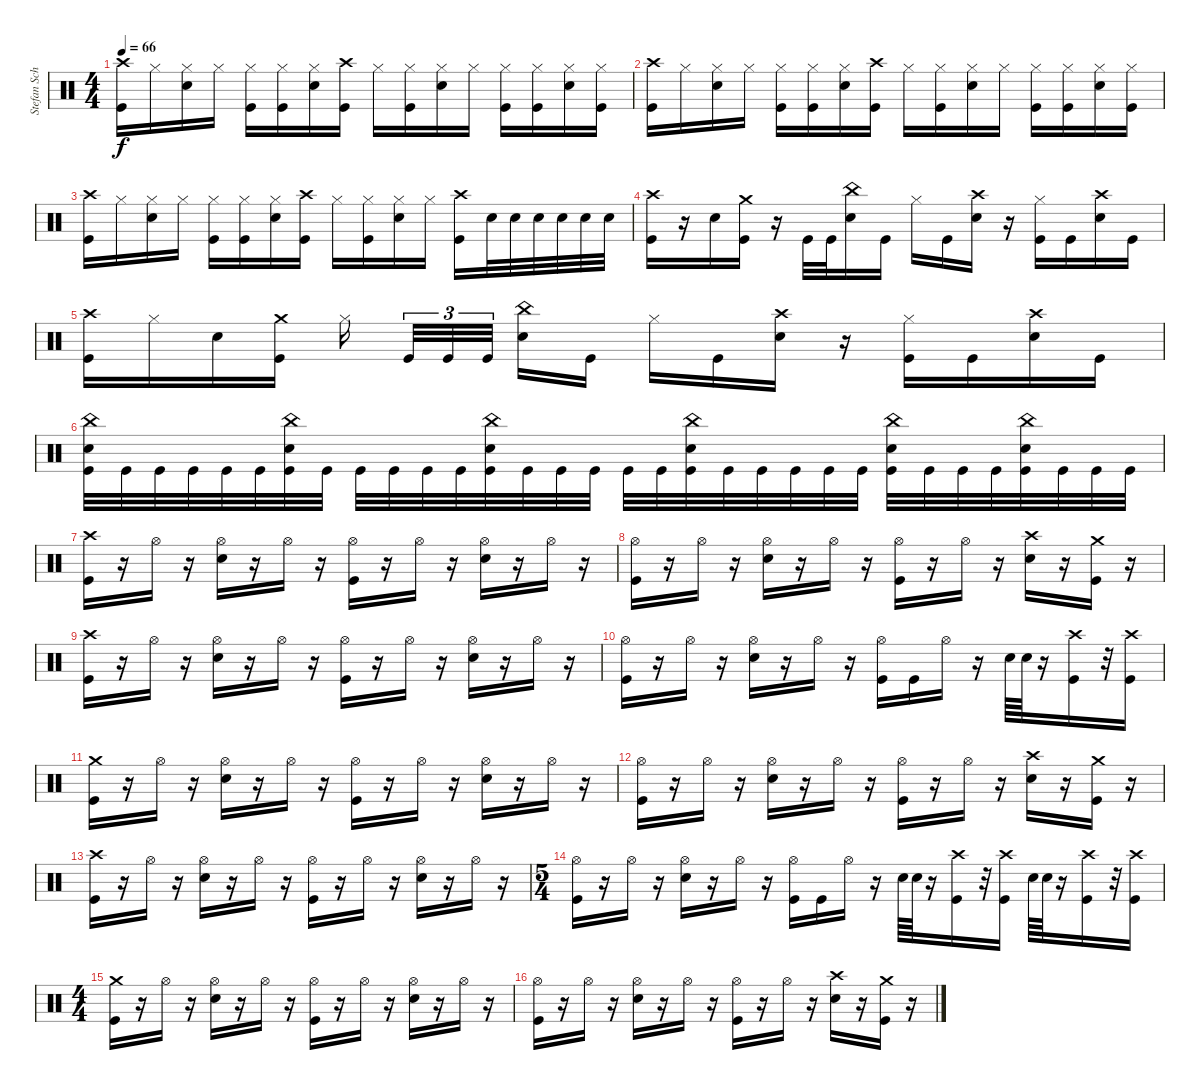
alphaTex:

\track ("Stefan Schwarzmann" "Stefan Sch") {instrument percussion}
\staff {score}
\articulation defaults
\ts (4 4)
\tempo 66
\clef neutral
\ks c
("Kick (hit)" "Crash high (hit)").16{dy f} "Hi-Hat (closed)".16 ("Snare (hit) 2" "Hi-Hat (closed)").16 "Hi-Hat (closed)".16 ("Kick (hit)" "Hi-Hat (closed)").16 ("Kick (hit)" "Hi-Hat (closed)").16 ("Snare (hit) 2" "Hi-Hat (closed)").16 ("Kick (hit)" "Crash high (hit)").16 "Hi-Hat (closed)".16 ("Kick (hit)" "Hi-Hat (closed)").16 ("Snare (hit) 2" "Hi-Hat (closed)").16 "Hi-Hat (closed)".16 ("Kick (hit)" "Hi-Hat (closed)").16 ("Kick (hit)" "Hi-Hat (closed)").16 ("Snare (hit) 2" "Hi-Hat (closed)").16 ("Kick (hit)" "Hi-Hat (closed)").16 |
("Kick (hit)" "Crash high (hit)").16 "Hi-Hat (closed)".16 ("Snare (hit) 2" "Hi-Hat (closed)").16 "Hi-Hat (closed)".16 ("Kick (hit)" "Hi-Hat (closed)").16 ("Kick (hit)" "Hi-Hat (closed)").16 ("Snare (hit) 2" "Hi-Hat (closed)").16 ("Kick (hit)" "Crash high (hit)").16 "Hi-Hat (closed)".16 ("Kick (hit)" "Hi-Hat (closed)").16 ("Snare (hit) 2" "Hi-Hat (closed)").16 "Hi-Hat (closed)".16 ("Kick (hit)" "Hi-Hat (closed)").16 ("Kick (hit)" "Hi-Hat (closed)").16 ("Snare (hit) 2" "Hi-Hat (closed)").16 ("Kick (hit)" "Hi-Hat (closed)").16 |
("Kick (hit)" "Crash high (hit)").16 "Hi-Hat (closed)".16 ("Snare (hit) 2" "Hi-Hat (closed)").16 "Hi-Hat (closed)".16 ("Kick (hit)" "Hi-Hat (closed)").16 ("Kick (hit)" "Hi-Hat (closed)").16 ("Snare (hit) 2" "Hi-Hat (closed)").16 ("Kick (hit)" "Crash high (hit)").16 "Hi-Hat (closed)".16 ("Kick (hit)" "Hi-Hat (closed)").16 ("Snare (hit) 2" "Hi-Hat (closed)").16 "Hi-Hat (closed)".16 ("Kick (hit)" "Crash high (hit)").16 "Snare (hit) 2".32 "Snare (hit) 2".32 "Snare (hit) 2".32 "Snare (hit) 2".32 "Snare (hit) 2".32 "Snare (hit) 2".32 |
("Kick (hit)" "Crash high (hit)").16 r.16 "Snare (hit) 2".16 ("Kick (hit)" "Crash medium (hit)").16 r.16 "Kick (hit)".32 "Kick (hit)".32 ("Snare (hit) 2" "China (hit)").16 "Kick (hit)".16 "Hi-Hat (closed)".16 "Kick (hit)".16 ("Crash high (hit)" "Snare (hit) 2").16 r.16 ("Kick (hit)" "Hi-Hat (closed)").16 "Kick (hit)".16 ("Snare (hit) 2" "Crash high (hit)").16 "Kick (hit)".16 |
("Kick (hit)" "Crash high (hit)").16 "Hi-Hat (closed)".16 "Snare (hit) 2".16 ("Kick (hit)" "Crash medium (hit)").16 "Hi-Hat (closed)".16 "Kick (hit)".32{tu (3 2)} "Kick (hit)".32{tu (3 2)} "Kick (hit)".32{tu (3 2)} ("Snare (hit) 2" "China (hit)").16 "Kick (hit)".16 "Hi-Hat (closed)".16 "Kick (hit)".16 ("Crash high (hit)" "Snare (hit) 2").16 r.16 ("Kick (hit)" "Hi-Hat (closed)").16 "Kick (hit)".16 ("Snare (hit) 2" "Crash high (hit)").16 "Kick (hit)".16 |
("Snare (hit) 2" "Kick (hit)" "China (hit)").32 "Kick (hit)".32 "Kick (hit)".32 "Kick (hit)".32 "Kick (hit)".32 "Kick (hit)".32 ("Kick (hit)" "Snare (hit) 2" "China (hit)").32 "Kick (hit)".32 "Kick (hit)".32 "Kick (hit)".32 "Kick (hit)".32 "Kick (hit)".32 ("Kick (hit)" "Snare (hit) 2" "China (hit)").32 "Kick (hit)".32 "Kick (hit)".32 "Kick (hit)".32 "Kick (hit)".32 "Kick (hit)".32 ("Snare (hit) 2" "China (hit)" "Kick (hit)").32 "Kick (hit)".32 "Kick (hit)".32 "Kick (hit)".32 "Kick (hit)".32 "Kick (hit)".32 ("Kick (hit)" "Snare (hit) 2" "China (hit)").32 "Kick (hit)".32 "Kick (hit)".32 "Kick (hit)".32 ("Kick (hit)" "Snare (hit) 2" "China (hit)").32 "Kick (hit)".32 "Kick (hit)".32 "Kick (hit)".32 |
("Kick (hit)" "Crash high (hit)").16 r.16 "Hi-Hat (open)".16 r.16 ("Snare (hit) 2" "Hi-Hat (open)").16 r.16 "Hi-Hat (open)".16 r.16 ("Kick (hit)" "Hi-Hat (open)").16 r.16 "Hi-Hat (open)".16 r.16 ("Snare (hit) 2" "Hi-Hat (open)").16 r.16 "Hi-Hat (open)".16 r.16 |
("Kick (hit)" "Hi-Hat (open)").16 r.16 "Hi-Hat (open)".16 r.16 ("Snare (hit) 2" "Hi-Hat (open)").16 r.16 "Hi-Hat (open)".16 r.16 ("Kick (hit)" "Hi-Hat (open)").16 r.16 "Hi-Hat (open)".16 r.16 ("Snare (hit) 2" "Crash high (hit)").16 r.16 ("Kick (hit)" "Crash medium (hit)").16 r.16 |
("Kick (hit)" "Crash high (hit)").16 r.16 "Hi-Hat (open)".16 r.16 ("Snare (hit) 2" "Hi-Hat (open)").16 r.16 "Hi-Hat (open)".16 r.16 ("Kick (hit)" "Hi-Hat (open)").16 r.16 "Hi-Hat (open)".16 r.16 ("Snare (hit) 2" "Hi-Hat (open)").16 r.16 "Hi-Hat (open)".16 r.16 |
("Kick (hit)" "Hi-Hat (open)").16 r.16 "Hi-Hat (open)".16 r.16 ("Snare (hit) 2" "Hi-Hat (open)").16 r.16 "Hi-Hat (open)".16 r.16 ("Kick (hit)" "Hi-Hat (open)").16 "Kick (hit)".16 "Hi-Hat (open)".16 r.16 "Snare (hit) 2".64 "Snare (hit) 2".64 r.16 ("Kick (hit)" "Crash high (hit)").16 r.32 ("Kick (hit)" "Crash high (hit)").16 |
("Kick (hit)" "Crash medium (hit)").16 r.16 "Hi-Hat (open)".16 r.16 ("Snare (hit) 2" "Hi-Hat (open)").16 r.16 "Hi-Hat (open)".16 r.16 ("Kick (hit)" "Hi-Hat (open)").16 r.16 "Hi-Hat (open)".16 r.16 ("Snare (hit) 2" "Hi-Hat (open)").16 r.16 "Hi-Hat (open)".16 r.16 |
("Kick (hit)" "Hi-Hat (open)").16 r.16 "Hi-Hat (open)".16 r.16 ("Snare (hit) 2" "Hi-Hat (open)").16 r.16 "Hi-Hat (open)".16 r.16 ("Kick (hit)" "Hi-Hat (open)").16 r.16 "Hi-Hat (open)".16 r.16 ("Snare (hit) 2" "Crash high (hit)").16 r.16 ("Kick (hit)" "Crash medium (hit)").16 r.16 |
("Kick (hit)" "Crash high (hit)").16 r.16 "Hi-Hat (open)".16 r.16 ("Snare (hit) 2" "Hi-Hat (open)").16 r.16 "Hi-Hat (open)".16 r.16 ("Kick (hit)" "Hi-Hat (open)").16 r.16 "Hi-Hat (open)".16 r.16 ("Snare (hit) 2" "Hi-Hat (open)").16 r.16 "Hi-Hat (open)".16 r.16 |
\ts (5 4)
("Kick (hit)" "Hi-Hat (open)").16 r.16 "Hi-Hat (open)".16 r.16 ("Snare (hit) 2" "Hi-Hat (open)").16 r.16 "Hi-Hat (open)".16 r.16 ("Kick (hit)" "Hi-Hat (open)").16 "Kick (hit)".16 "Hi-Hat (open)".16 r.16 "Snare (hit) 2".64 "Snare (hit) 2".64 r.16 ("Kick (hit)" "Crash high (hit)").16 r.32 ("Kick (hit)" "Crash high (hit)").16 "Snare (hit) 2".64 "Snare (hit) 2".64 r.16 ("Kick (hit)" "Crash high (hit)").16 r.32 ("Kick (hit)" "Crash high (hit)").16 |
\ts (4 4)
("Kick (hit)" "Crash medium (hit)").16 r.16 "Hi-Hat (open)".16 r.16 ("Snare (hit) 2" "Hi-Hat (open)").16 r.16 "Hi-Hat (open)".16 r.16 ("Kick (hit)" "Hi-Hat (open)").16 r.16 "Hi-Hat (open)".16 r.16 ("Snare (hit) 2" "Hi-Hat (open)").16 r.16 "Hi-Hat (open)".16 r.16 |
("Kick (hit)" "Hi-Hat (open)").16 r.16 "Hi-Hat (open)".16 r.16 ("Snare (hit) 2" "Hi-Hat (open)").16 r.16 "Hi-Hat (open)".16 r.16 ("Kick (hit)" "Hi-Hat (open)").16 r.16 "Hi-Hat (open)".16 r.16 ("Snare (hit) 2" "Crash high (hit)").16 r.16 ("Kick (hit)" "Crash medium (hit)").16 r.16
